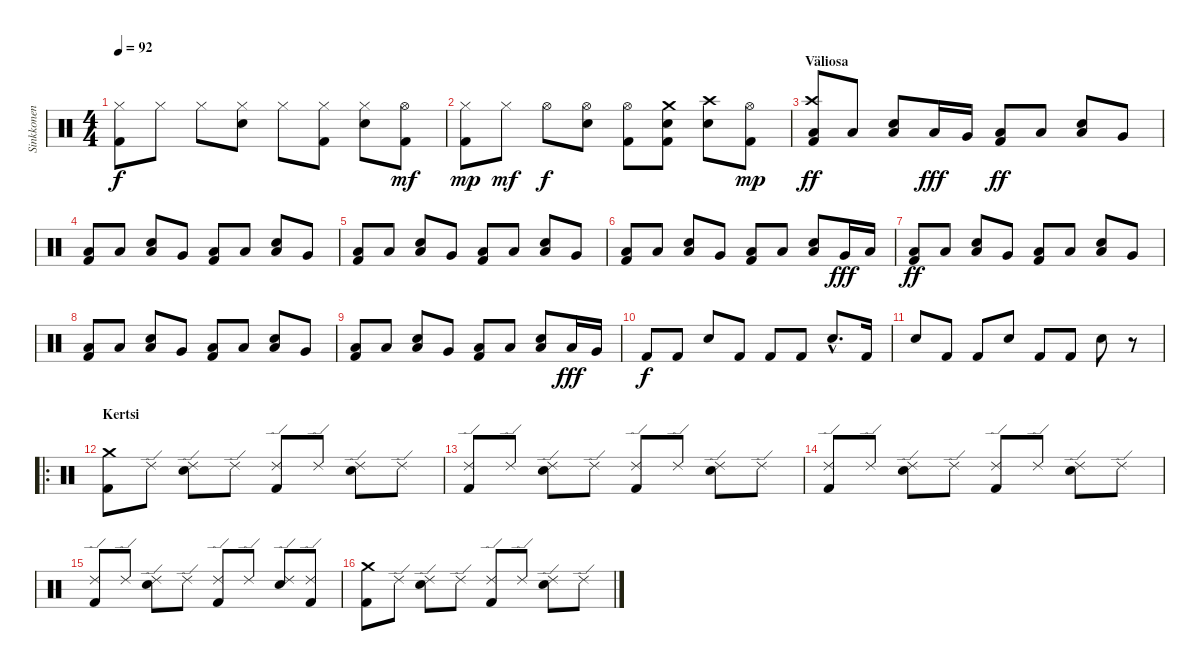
\track ("Sinkkonen" "Sinkkonen") {instrument percussion}
\staff {score}
\articulation defaults
\ts (4 4)
\tempo 92
\clef neutral
\ks c
("Kick (hit) 2" "Hi-Hat (closed)").8{dy f} "Hi-Hat (closed)".8 "Hi-Hat (closed)".8 ("Hi-Hat (closed)" "Snare (hit) 2").8 "Hi-Hat (closed)".8 ("Kick (hit) 2" "Hi-Hat (closed)").8 ("Hi-Hat (closed)" "Snare (hit) 2").8 ("Kick (hit) 2" "Hi-Hat (open)").8{dy mf} |
("Kick (hit) 2" "Hi-Hat (closed)").8{dy mp} "Hi-Hat (closed)".8{dy mf} "Hi-Hat (open)".8{dy f} ("Hi-Hat (open)" "Snare (hit) 2").8 ("Kick (hit) 2" "Hi-Hat (open)").8 ("Kick (hit) 2" "Crash medium (hit)" "Snare (hit) 2").8 ("Crash high (hit)" "Snare (hit) 2").8 ("Kick (hit) 2" "Hi-Hat (open)").8{dy mp} |
\section ("" "Väliosa")
("Kick (hit) 2" "Crash high (hit)" "Low Floor Tom (hit)").8{dy ff} "Low Floor Tom (hit)".8 ("Low Floor Tom (hit)" "Snare (hit) 2").8 "Low Tom (hit)".16{dy fff} "Very Low Tom (hit)".16 ("Kick (hit) 2" "Low Floor Tom (hit)").8{dy ff} "Low Floor Tom (hit)".8 ("Low Floor Tom (hit)" "Snare (hit) 2").8 "Very Low Tom (hit)".8 |
("Kick (hit) 2" "Low Floor Tom (hit)").8 "Low Floor Tom (hit)".8 ("Low Floor Tom (hit)" "Snare (hit) 2").8 "Very Low Tom (hit)".8 ("Kick (hit) 2" "Low Floor Tom (hit)").8 "Low Floor Tom (hit)".8 ("Low Floor Tom (hit)" "Snare (hit) 2").8 "Very Low Tom (hit)".8 |
("Kick (hit) 2" "Low Floor Tom (hit)").8 "Low Floor Tom (hit)".8 ("Low Floor Tom (hit)" "Snare (hit) 2").8 "Very Low Tom (hit)".8 ("Kick (hit) 2" "Low Floor Tom (hit)").8 "Low Floor Tom (hit)".8 ("Low Floor Tom (hit)" "Snare (hit) 2").8 "Very Low Tom (hit)".8 |
("Kick (hit) 2" "Low Floor Tom (hit)").8 "Low Floor Tom (hit)".8 ("Low Floor Tom (hit)" "Snare (hit) 2").8 "Very Low Tom (hit)".8 ("Kick (hit) 2" "Low Floor Tom (hit)").8 "Low Floor Tom (hit)".8 ("Low Floor Tom (hit)" "Snare (hit) 2").8 "Very Low Tom (hit)".16{dy fff} "Low Tom (hit)".16 |
("Kick (hit) 2" "Low Floor Tom (hit)").8{dy ff} "Low Floor Tom (hit)".8 ("Low Floor Tom (hit)" "Snare (hit) 2").8 "Very Low Tom (hit)".8 ("Kick (hit) 2" "Low Floor Tom (hit)").8 "Low Floor Tom (hit)".8 ("Low Floor Tom (hit)" "Snare (hit) 2").8 "Very Low Tom (hit)".8 |
("Kick (hit) 2" "Low Floor Tom (hit)").8 "Low Floor Tom (hit)".8 ("Low Floor Tom (hit)" "Snare (hit) 2").8 "Very Low Tom (hit)".8 ("Kick (hit) 2" "Low Floor Tom (hit)").8 "Low Floor Tom (hit)".8 ("Low Floor Tom (hit)" "Snare (hit) 2").8 "Very Low Tom (hit)".8 |
("Kick (hit) 2" "Low Floor Tom (hit)").8 "Low Floor Tom (hit)".8 ("Low Floor Tom (hit)" "Snare (hit) 2").8 "Very Low Tom (hit)".8 ("Kick (hit) 2" "Low Floor Tom (hit)").8 "Low Floor Tom (hit)".8 ("Low Floor Tom (hit)" "Snare (hit) 2").8 "Low Floor Tom (hit)".16{dy fff} "Very Low Tom (hit)".16 |
"Kick (hit) 2".8{dy f} "Kick (hit) 2".8 "Snare (hit) 2".8 "Kick (hit) 2".8 "Kick (hit) 2".8 "Kick (hit) 2".8 "Snare (hit) 2"{hac}.8{d} "Kick (hit) 2".16 |
"Snare (hit) 2".8 "Kick (hit) 2".8 "Kick (hit) 2".8 "Snare (hit) 2".8 "Kick (hit) 2".8 "Kick (hit) 2".8 "Snare (hit) 2".8 r.8 |
\ro
\section ("" "Kertsi")
("Kick (hit) 2" "Crash medium (hit)").8 "Ride (edge) 2".8 ("Ride (edge) 2" "Snare (hit) 2").8 "Ride (edge) 2".8 ("Kick (hit) 2" "Ride (edge) 2").8 "Ride (edge) 2".8 ("Ride (edge) 2" "Snare (hit) 2").8 "Ride (edge) 2".8 |
("Kick (hit) 2" "Ride (edge) 2").8 "Ride (edge) 2".8 ("Ride (edge) 2" "Snare (hit) 2").8 "Ride (edge) 2".8 ("Kick (hit) 2" "Ride (edge) 2").8 "Ride (edge) 2".8 ("Ride (edge) 2" "Snare (hit) 2").8 "Ride (edge) 2".8 |
("Kick (hit) 2" "Ride (edge) 2").8 "Ride (edge) 2".8 ("Ride (edge) 2" "Snare (hit) 2").8 "Ride (edge) 2".8 ("Kick (hit) 2" "Ride (edge) 2").8 "Ride (edge) 2".8 ("Ride (edge) 2" "Snare (hit) 2").8 "Ride (edge) 2".8 |
("Kick (hit) 2" "Ride (edge) 2").8 "Ride (edge) 2".8 ("Ride (edge) 2" "Snare (hit) 2").8 "Ride (edge) 2".8 ("Kick (hit) 2" "Ride (edge) 2").8 "Ride (edge) 2".8 ("Ride (edge) 2" "Snare (hit) 2").8 ("Kick (hit) 2" "Ride (edge) 2").8 |
("Kick (hit) 2" "Crash medium (hit)").8 "Ride (edge) 2".8 ("Ride (edge) 2" "Snare (hit) 2").8 "Ride (edge) 2".8 ("Kick (hit) 2" "Ride (edge) 2").8 "Ride (edge) 2".8 ("Ride (edge) 2" "Snare (hit) 2").8 "Ride (edge) 2".8
